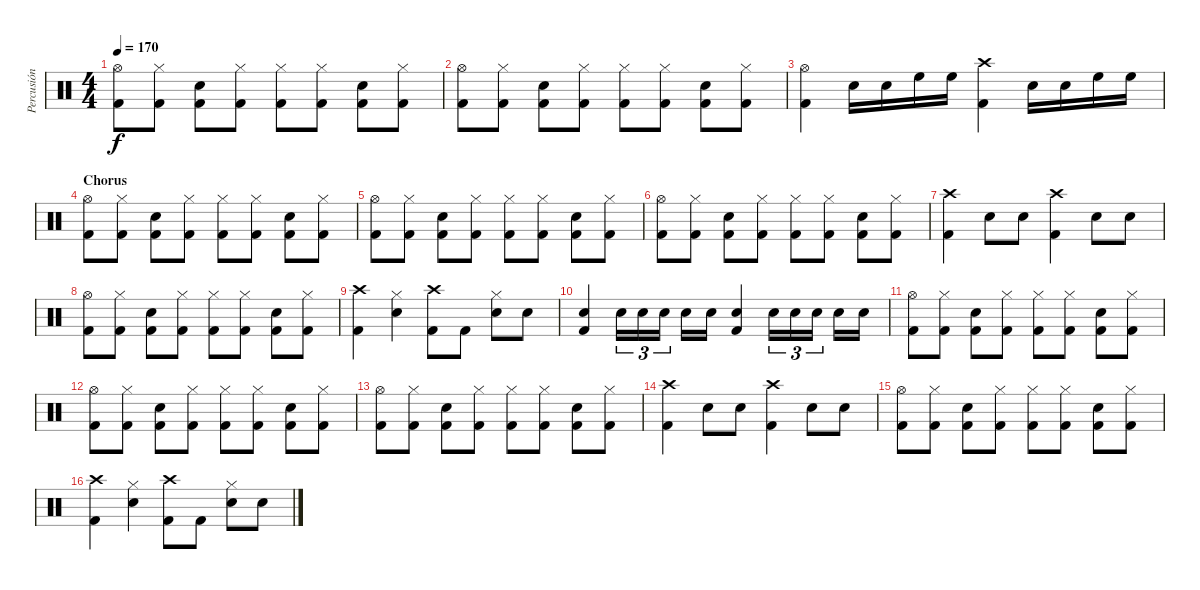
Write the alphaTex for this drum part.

\track ("Percusión" "Percusión") {instrument percussion}
\staff {score}
\articulation defaults
\ts (4 4)
\tempo 170
\clef neutral
\ks c
("Kick (hit) 2" "Hi-Hat (open)").8{dy f} ("Kick (hit) 2" "Hi-Hat (closed)").8 ("Kick (hit) 2" "Snare (hit) 2").8 ("Kick (hit) 2" "Hi-Hat (closed)").8 ("Kick (hit) 2" "Hi-Hat (closed)").8 ("Kick (hit) 2" "Hi-Hat (closed)").8 ("Kick (hit) 2" "Snare (hit) 2").8 ("Kick (hit) 2" "Hi-Hat (closed)").8 |
("Kick (hit) 2" "Hi-Hat (open)").8 ("Kick (hit) 2" "Hi-Hat (closed)").8 ("Kick (hit) 2" "Snare (hit) 2").8 ("Kick (hit) 2" "Hi-Hat (closed)").8 ("Kick (hit) 2" "Hi-Hat (closed)").8 ("Kick (hit) 2" "Hi-Hat (closed)").8 ("Kick (hit) 2" "Snare (hit) 2").8 ("Kick (hit) 2" "Hi-Hat (closed)").8 |
("Kick (hit) 2" "Hi-Hat (open)").4 "Snare (hit) 2".16 "Snare (hit) 2".16 "High Floor Tom (hit)".16 "High Floor Tom (hit)".16 ("Kick (hit) 2" "Crash high (hit)").4 "Snare (hit) 2".16 "Snare (hit) 2".16 "High Floor Tom (hit)".16 "High Floor Tom (hit)".16 |
\section ("" "Chorus")
("Kick (hit) 2" "Hi-Hat (open)").8 ("Kick (hit) 2" "Hi-Hat (closed)").8 ("Kick (hit) 2" "Snare (hit) 2").8 ("Kick (hit) 2" "Hi-Hat (closed)").8 ("Kick (hit) 2" "Hi-Hat (closed)").8 ("Kick (hit) 2" "Hi-Hat (closed)").8 ("Kick (hit) 2" "Snare (hit) 2").8 ("Kick (hit) 2" "Hi-Hat (closed)").8 |
("Kick (hit) 2" "Hi-Hat (open)").8 ("Kick (hit) 2" "Hi-Hat (closed)").8 ("Kick (hit) 2" "Snare (hit) 2").8 ("Kick (hit) 2" "Hi-Hat (closed)").8 ("Kick (hit) 2" "Hi-Hat (closed)").8 ("Kick (hit) 2" "Hi-Hat (closed)").8 ("Kick (hit) 2" "Snare (hit) 2").8 ("Kick (hit) 2" "Hi-Hat (closed)").8 |
("Kick (hit) 2" "Hi-Hat (open)").8 ("Kick (hit) 2" "Hi-Hat (closed)").8 ("Kick (hit) 2" "Snare (hit) 2").8 ("Kick (hit) 2" "Hi-Hat (closed)").8 ("Kick (hit) 2" "Hi-Hat (closed)").8 ("Kick (hit) 2" "Hi-Hat (closed)").8 ("Kick (hit) 2" "Snare (hit) 2").8 ("Kick (hit) 2" "Hi-Hat (closed)").8 |
("Kick (hit) 2" "Crash high (hit)").4 "Snare (hit) 2".8 "Snare (hit) 2".8 ("Kick (hit) 2" "Crash high (hit)").4 "Snare (hit) 2".8 "Snare (hit) 2".8 |
("Kick (hit) 2" "Hi-Hat (open)").8 ("Kick (hit) 2" "Hi-Hat (closed)").8 ("Kick (hit) 2" "Snare (hit) 2").8 ("Kick (hit) 2" "Hi-Hat (closed)").8 ("Kick (hit) 2" "Hi-Hat (closed)").8 ("Kick (hit) 2" "Hi-Hat (closed)").8 ("Kick (hit) 2" "Snare (hit) 2").8 ("Kick (hit) 2" "Hi-Hat (closed)").8 |
("Kick (hit) 2" "Crash high (hit)").4 ("Snare (hit) 2" "Hi-Hat (closed)").4 ("Kick (hit) 2" "Crash high (hit)").8 "Kick (hit) 2".8 ("Snare (hit) 2" "Hi-Hat (closed)").8 "Snare (hit) 2".8 |
("Kick (hit) 2" "Snare (hit) 2").4 "Snare (hit) 2".16{tu (3 2)} "Snare (hit) 2".16{tu (3 2)} "Snare (hit) 2".16{tu (3 2)} "Snare (hit) 2".16 "Snare (hit) 2".16 ("Kick (hit) 2" "Snare (hit) 2").4 "Snare (hit) 2".16{tu (3 2)} "Snare (hit) 2".16{tu (3 2)} "Snare (hit) 2".16{tu (3 2)} "Snare (hit) 2".16 "Snare (hit) 2".16 |
("Kick (hit) 2" "Hi-Hat (open)").8 ("Kick (hit) 2" "Hi-Hat (closed)").8 ("Kick (hit) 2" "Snare (hit) 2").8 ("Kick (hit) 2" "Hi-Hat (closed)").8 ("Kick (hit) 2" "Hi-Hat (closed)").8 ("Kick (hit) 2" "Hi-Hat (closed)").8 ("Kick (hit) 2" "Snare (hit) 2").8 ("Kick (hit) 2" "Hi-Hat (closed)").8 |
("Kick (hit) 2" "Hi-Hat (open)").8 ("Kick (hit) 2" "Hi-Hat (closed)").8 ("Kick (hit) 2" "Snare (hit) 2").8 ("Kick (hit) 2" "Hi-Hat (closed)").8 ("Kick (hit) 2" "Hi-Hat (closed)").8 ("Kick (hit) 2" "Hi-Hat (closed)").8 ("Kick (hit) 2" "Snare (hit) 2").8 ("Kick (hit) 2" "Hi-Hat (closed)").8 |
("Kick (hit) 2" "Hi-Hat (open)").8 ("Kick (hit) 2" "Hi-Hat (closed)").8 ("Kick (hit) 2" "Snare (hit) 2").8 ("Kick (hit) 2" "Hi-Hat (closed)").8 ("Kick (hit) 2" "Hi-Hat (closed)").8 ("Kick (hit) 2" "Hi-Hat (closed)").8 ("Kick (hit) 2" "Snare (hit) 2").8 ("Kick (hit) 2" "Hi-Hat (closed)").8 |
("Kick (hit) 2" "Crash high (hit)").4 "Snare (hit) 2".8 "Snare (hit) 2".8 ("Kick (hit) 2" "Crash high (hit)").4 "Snare (hit) 2".8 "Snare (hit) 2".8 |
("Kick (hit) 2" "Hi-Hat (open)").8 ("Kick (hit) 2" "Hi-Hat (closed)").8 ("Kick (hit) 2" "Snare (hit) 2").8 ("Kick (hit) 2" "Hi-Hat (closed)").8 ("Kick (hit) 2" "Hi-Hat (closed)").8 ("Kick (hit) 2" "Hi-Hat (closed)").8 ("Kick (hit) 2" "Snare (hit) 2").8 ("Kick (hit) 2" "Hi-Hat (closed)").8 |
("Kick (hit) 2" "Crash high (hit)").4 ("Snare (hit) 2" "Hi-Hat (closed)").4 ("Kick (hit) 2" "Crash high (hit)").8 "Kick (hit) 2".8 ("Snare (hit) 2" "Hi-Hat (closed)").8 "Snare (hit) 2".8
